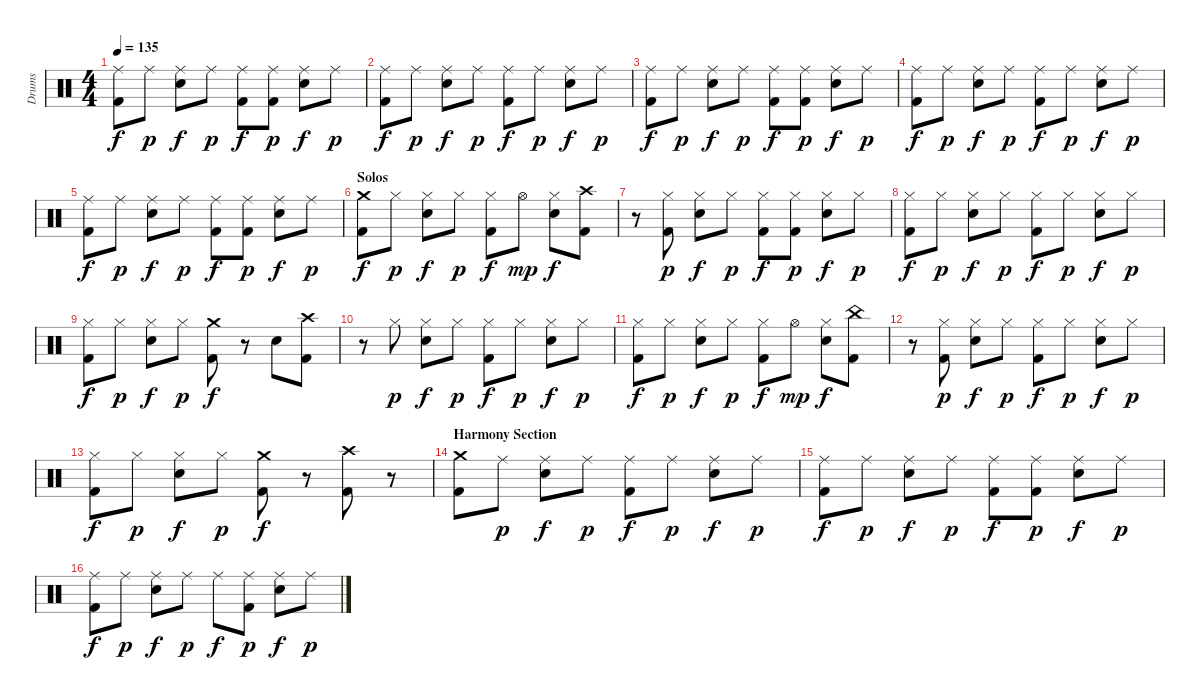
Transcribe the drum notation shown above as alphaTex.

\track ("Drums" "Drums") {instrument percussion}
\staff {score}
\articulation defaults
\ts (4 4)
\tempo 135
\clef neutral
\ks c
("Ride (middle)" "Kick (hit) 2").8{dy f} "Ride (middle)".8{dy p} ("Ride (middle)" "Snare (hit) 2").8{dy f} "Ride (middle)".8{dy p} ("Ride (middle)" "Kick (hit) 2").8{dy f} ("Ride (middle)" "Kick (hit) 2").8{dy p} ("Ride (middle)" "Snare (hit) 2").8{dy f} "Ride (middle)".8{dy p} |
("Ride (middle)" "Kick (hit) 2").8{dy f} "Ride (middle)".8{dy p} ("Ride (middle)" "Snare (hit) 2").8{dy f} "Ride (middle)".8{dy p} ("Ride (middle)" "Kick (hit) 2").8{dy f} "Ride (middle)".8{dy p} ("Ride (middle)" "Snare (hit) 2").8{dy f} "Ride (middle)".8{dy p} |
("Ride (middle)" "Kick (hit) 2").8{dy f} "Ride (middle)".8{dy p} ("Ride (middle)" "Snare (hit) 2").8{dy f} "Ride (middle)".8{dy p} ("Ride (middle)" "Kick (hit) 2").8{dy f} ("Ride (middle)" "Kick (hit) 2").8{dy p} ("Ride (middle)" "Snare (hit) 2").8{dy f} "Ride (middle)".8{dy p} |
("Ride (middle)" "Kick (hit) 2").8{dy f} "Ride (middle)".8{dy p} ("Ride (middle)" "Snare (hit) 2").8{dy f} "Ride (middle)".8{dy p} ("Ride (middle)" "Kick (hit) 2").8{dy f} "Ride (middle)".8{dy p} ("Ride (middle)" "Snare (hit) 2").8{dy f} "Ride (middle)".8{dy p} |
("Ride (middle)" "Kick (hit) 2").8{dy f} "Ride (middle)".8{dy p} ("Ride (middle)" "Snare (hit) 2").8{dy f} "Ride (middle)".8{dy p} ("Ride (middle)" "Kick (hit) 2").8{dy f} ("Ride (middle)" "Kick (hit) 2").8{dy p} ("Ride (middle)" "Snare (hit) 2").8{dy f} "Ride (middle)".8{dy p} |
\section ("" "Solos")
("Crash medium (hit)" "Kick (hit) 2").8{dy f} "Hi-Hat (closed)".8{dy p} ("Hi-Hat (closed)" "Snare (hit) 2").8{dy f} "Hi-Hat (closed)".8{dy p} ("Hi-Hat (closed)" "Kick (hit) 2").8{dy f} "Hi-Hat (open)".8{dy mp} ("Hi-Hat (closed)" "Snare (hit) 2").8{dy f} ("Crash high (hit)" "Kick (hit) 2").8 |
r.8 ("Hi-Hat (closed)" "Kick (hit) 2").8{dy p} ("Hi-Hat (closed)" "Snare (hit) 2").8{dy f} "Hi-Hat (closed)".8{dy p} ("Hi-Hat (closed)" "Kick (hit) 2").8{dy f} ("Hi-Hat (closed)" "Kick (hit) 2").8{dy p} ("Hi-Hat (closed)" "Snare (hit) 2").8{dy f} "Hi-Hat (closed)".8{dy p} |
("Hi-Hat (closed)" "Kick (hit) 2").8{dy f} "Hi-Hat (closed)".8{dy p} ("Hi-Hat (closed)" "Snare (hit) 2").8{dy f} "Hi-Hat (closed)".8{dy p} ("Hi-Hat (closed)" "Kick (hit) 2").8{dy f} "Hi-Hat (closed)".8{dy p} ("Hi-Hat (closed)" "Snare (hit) 2").8{dy f} "Hi-Hat (closed)".8{dy p} |
("Hi-Hat (closed)" "Kick (hit) 2").8{dy f} "Hi-Hat (closed)".8{dy p} ("Hi-Hat (closed)" "Snare (hit) 2").8{dy f} "Hi-Hat (closed)".8{dy p} ("Crash medium (hit)" "Kick (hit) 2").8{dy f} r.8 "Snare (hit) 2".8 ("Crash high (hit)" "Kick (hit) 2").8 |
r.8 "Hi-Hat (closed)".8{dy p} ("Hi-Hat (closed)" "Snare (hit) 2").8{dy f} "Hi-Hat (closed)".8{dy p} ("Hi-Hat (closed)" "Kick (hit) 2").8{dy f} "Hi-Hat (closed)".8{dy p} ("Hi-Hat (closed)" "Snare (hit) 2").8{dy f} "Hi-Hat (closed)".8{dy p} |
("Hi-Hat (closed)" "Kick (hit) 2").8{dy f} "Hi-Hat (closed)".8{dy p} ("Hi-Hat (closed)" "Snare (hit) 2").8{dy f} "Hi-Hat (closed)".8{dy p} ("Hi-Hat (closed)" "Kick (hit) 2").8{dy f} "Hi-Hat (open)".8{dy mp} ("Hi-Hat (closed)" "Snare (hit) 2").8{dy f} ("China (hit)" "Kick (hit) 2").8 |
r.8 ("Hi-Hat (closed)" "Kick (hit) 2").8{dy p} ("Hi-Hat (closed)" "Snare (hit) 2").8{dy f} "Hi-Hat (closed)".8{dy p} ("Hi-Hat (closed)" "Kick (hit) 2").8{dy f} "Hi-Hat (closed)".8{dy p} ("Hi-Hat (closed)" "Snare (hit) 2").8{dy f} "Hi-Hat (closed)".8{dy p} |
("Hi-Hat (closed)" "Kick (hit) 2").8{dy f} "Hi-Hat (closed)".8{dy p} ("Hi-Hat (closed)" "Snare (hit) 2").8{dy f} "Hi-Hat (closed)".8{dy p} ("Crash medium (hit)" "Kick (hit) 2").8{dy f} r.8 ("Crash high (hit)" "Kick (hit) 2").8 r.8 |
\section ("" "Harmony Section")
("Crash medium (hit)" "Kick (hit) 2").8 "Ride (middle)".8{dy p} ("Ride (middle)" "Snare (hit) 2").8{dy f} "Ride (middle)".8{dy p} ("Ride (middle)" "Kick (hit) 2").8{dy f} "Ride (middle)".8{dy p} ("Ride (middle)" "Snare (hit) 2").8{dy f} "Ride (middle)".8{dy p} |
("Ride (middle)" "Kick (hit) 2").8{dy f} "Ride (middle)".8{dy p} ("Ride (middle)" "Snare (hit) 2").8{dy f} "Ride (middle)".8{dy p} ("Ride (middle)" "Kick (hit) 2").8{dy f} ("Ride (middle)" "Kick (hit) 2").8{dy p} ("Ride (middle)" "Snare (hit) 2").8{dy f} "Ride (middle)".8{dy p} |
("Ride (middle)" "Kick (hit) 2").8{dy f} "Ride (middle)".8{dy p} ("Ride (middle)" "Snare (hit) 2").8{dy f} "Ride (middle)".8{dy p} "Ride (middle)".8{dy f} ("Ride (middle)" "Kick (hit) 2").8{dy p} ("Ride (middle)" "Snare (hit) 2").8{dy f} "Ride (middle)".8{dy p}
